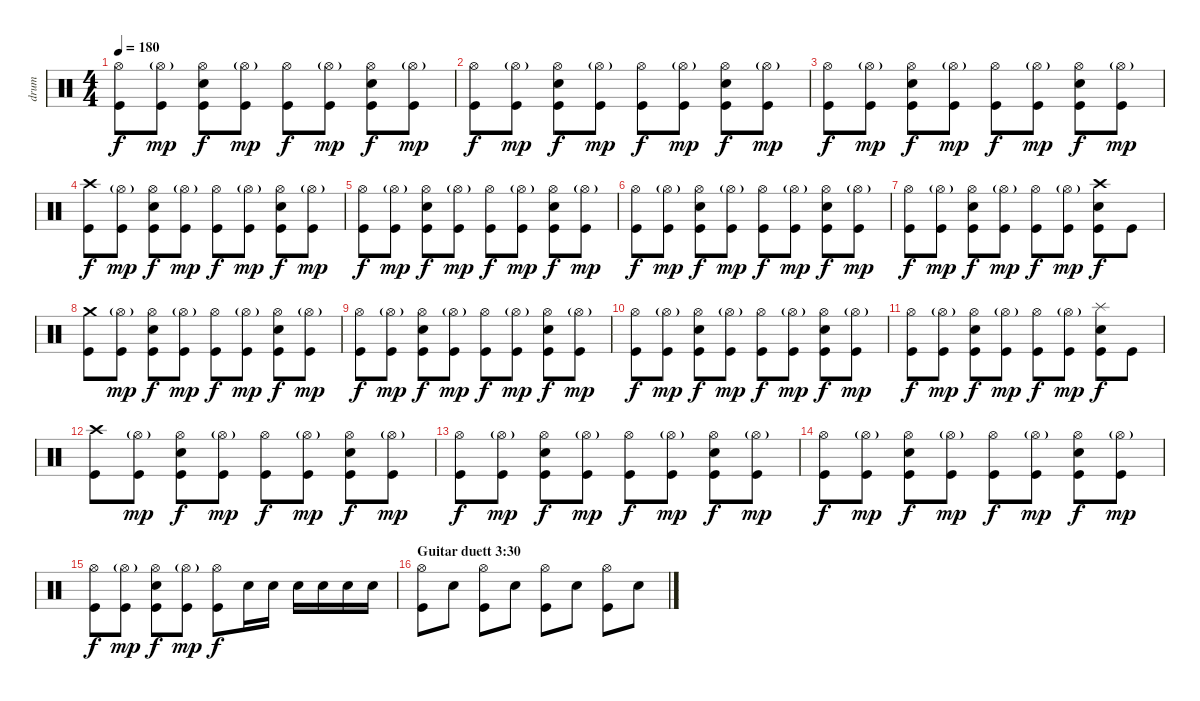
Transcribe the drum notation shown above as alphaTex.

\track ("drum" "drum") {instrument percussion}
\staff {score}
\articulation defaults
\ts (4 4)
\tempo 180
\clef neutral
\ks c
("Hi-Hat (open)" "Kick (hit)").8{dy f} ("Hi-Hat (open)"{g} "Kick (hit)").8{dy mp} ("Hi-Hat (open)" "Snare (hit) 2" "Kick (hit)").8{dy f} ("Hi-Hat (open)"{g} "Kick (hit)").8{dy mp} ("Hi-Hat (open)" "Kick (hit)").8{dy f} ("Hi-Hat (open)"{g} "Kick (hit)").8{dy mp} ("Hi-Hat (open)" "Snare (hit) 2" "Kick (hit)").8{dy f} ("Hi-Hat (open)"{g} "Kick (hit)").8{dy mp} |
("Hi-Hat (open)" "Kick (hit)").8{dy f} ("Hi-Hat (open)"{g} "Kick (hit)").8{dy mp} ("Hi-Hat (open)" "Snare (hit) 2" "Kick (hit)").8{dy f} ("Hi-Hat (open)"{g} "Kick (hit)").8{dy mp} ("Hi-Hat (open)" "Kick (hit)").8{dy f} ("Hi-Hat (open)"{g} "Kick (hit)").8{dy mp} ("Hi-Hat (open)" "Snare (hit) 2" "Kick (hit)").8{dy f} ("Hi-Hat (open)"{g} "Kick (hit)").8{dy mp} |
("Hi-Hat (open)" "Kick (hit)").8{dy f} ("Hi-Hat (open)"{g} "Kick (hit)").8{dy mp} ("Hi-Hat (open)" "Snare (hit) 2" "Kick (hit)").8{dy f} ("Hi-Hat (open)"{g} "Kick (hit)").8{dy mp} ("Hi-Hat (open)" "Kick (hit)").8{dy f} ("Hi-Hat (open)"{g} "Kick (hit)").8{dy mp} ("Hi-Hat (open)" "Snare (hit) 2" "Kick (hit)").8{dy f} ("Hi-Hat (open)"{g} "Kick (hit)").8{dy mp} |
("Crash high (hit)" "Kick (hit)").8{dy f} ("Hi-Hat (open)"{g} "Kick (hit)").8{dy mp} ("Hi-Hat (open)" "Snare (hit) 2" "Kick (hit)").8{dy f} ("Hi-Hat (open)"{g} "Kick (hit)").8{dy mp} ("Hi-Hat (open)" "Kick (hit)").8{dy f} ("Hi-Hat (open)"{g} "Kick (hit)").8{dy mp} ("Hi-Hat (open)" "Snare (hit) 2" "Kick (hit)").8{dy f} ("Hi-Hat (open)"{g} "Kick (hit)").8{dy mp} |
("Hi-Hat (open)" "Kick (hit)").8{dy f} ("Hi-Hat (open)"{g} "Kick (hit)").8{dy mp} ("Hi-Hat (open)" "Snare (hit) 2" "Kick (hit)").8{dy f} ("Hi-Hat (open)"{g} "Kick (hit)").8{dy mp} ("Hi-Hat (open)" "Kick (hit)").8{dy f} ("Hi-Hat (open)"{g} "Kick (hit)").8{dy mp} ("Hi-Hat (open)" "Snare (hit) 2" "Kick (hit)").8{dy f} ("Hi-Hat (open)"{g} "Kick (hit)").8{dy mp} |
("Hi-Hat (open)" "Kick (hit)").8{dy f} ("Hi-Hat (open)"{g} "Kick (hit)").8{dy mp} ("Hi-Hat (open)" "Snare (hit) 2" "Kick (hit)").8{dy f} ("Hi-Hat (open)"{g} "Kick (hit)").8{dy mp} ("Hi-Hat (open)" "Kick (hit)").8{dy f} ("Hi-Hat (open)"{g} "Kick (hit)").8{dy mp} ("Hi-Hat (open)" "Snare (hit) 2" "Kick (hit)").8{dy f} ("Hi-Hat (open)"{g} "Kick (hit)").8{dy mp} |
("Hi-Hat (open)" "Kick (hit)").8{dy f} ("Hi-Hat (open)"{g} "Kick (hit)").8{dy mp} ("Hi-Hat (open)" "Snare (hit) 2" "Kick (hit)").8{dy f} ("Hi-Hat (open)"{g} "Kick (hit)").8{dy mp} ("Hi-Hat (open)" "Kick (hit)").8{dy f} ("Hi-Hat (open)"{g} "Kick (hit)").8{dy mp} ("Crash high (hit)" "Snare (hit) 2" "Kick (hit)").8{dy f} "Kick (hit)".8 |
("Crash medium (hit)" "Kick (hit)").8 ("Hi-Hat (open)"{g} "Kick (hit)").8{dy mp} ("Hi-Hat (open)" "Snare (hit) 2" "Kick (hit)").8{dy f} ("Hi-Hat (open)"{g} "Kick (hit)").8{dy mp} ("Hi-Hat (open)" "Kick (hit)").8{dy f} ("Hi-Hat (open)"{g} "Kick (hit)").8{dy mp} ("Hi-Hat (open)" "Snare (hit) 2" "Kick (hit)").8{dy f} ("Hi-Hat (open)"{g} "Kick (hit)").8{dy mp} |
("Hi-Hat (open)" "Kick (hit)").8{dy f} ("Hi-Hat (open)"{g} "Kick (hit)").8{dy mp} ("Hi-Hat (open)" "Snare (hit) 2" "Kick (hit)").8{dy f} ("Hi-Hat (open)"{g} "Kick (hit)").8{dy mp} ("Hi-Hat (open)" "Kick (hit)").8{dy f} ("Hi-Hat (open)"{g} "Kick (hit)").8{dy mp} ("Hi-Hat (open)" "Snare (hit) 2" "Kick (hit)").8{dy f} ("Hi-Hat (open)"{g} "Kick (hit)").8{dy mp} |
("Hi-Hat (open)" "Kick (hit)").8{dy f} ("Hi-Hat (open)"{g} "Kick (hit)").8{dy mp} ("Hi-Hat (open)" "Snare (hit) 2" "Kick (hit)").8{dy f} ("Hi-Hat (open)"{g} "Kick (hit)").8{dy mp} ("Hi-Hat (open)" "Kick (hit)").8{dy f} ("Hi-Hat (open)"{g} "Kick (hit)").8{dy mp} ("Hi-Hat (open)" "Snare (hit) 2" "Kick (hit)").8{dy f} ("Hi-Hat (open)"{g} "Kick (hit)").8{dy mp} |
("Hi-Hat (open)" "Kick (hit)").8{dy f} ("Hi-Hat (open)"{g} "Kick (hit)").8{dy mp} ("Hi-Hat (open)" "Snare (hit) 2" "Kick (hit)").8{dy f} ("Hi-Hat (open)"{g} "Kick (hit)").8{dy mp} ("Hi-Hat (open)" "Kick (hit)").8{dy f} ("Hi-Hat (open)"{g} "Kick (hit)").8{dy mp} ("Splash (hit)" "Snare (hit) 2" "Kick (hit)").8{dy f} "Kick (hit)".8 |
("Crash high (hit)" "Kick (hit)").8 ("Hi-Hat (open)"{g} "Kick (hit)").8{dy mp} ("Hi-Hat (open)" "Snare (hit) 2" "Kick (hit)").8{dy f} ("Hi-Hat (open)"{g} "Kick (hit)").8{dy mp} ("Hi-Hat (open)" "Kick (hit)").8{dy f} ("Hi-Hat (open)"{g} "Kick (hit)").8{dy mp} ("Hi-Hat (open)" "Snare (hit) 2" "Kick (hit)").8{dy f} ("Hi-Hat (open)"{g} "Kick (hit)").8{dy mp} |
("Hi-Hat (open)" "Kick (hit)").8{dy f} ("Hi-Hat (open)"{g} "Kick (hit)").8{dy mp} ("Hi-Hat (open)" "Snare (hit) 2" "Kick (hit)").8{dy f} ("Hi-Hat (open)"{g} "Kick (hit)").8{dy mp} ("Hi-Hat (open)" "Kick (hit)").8{dy f} ("Hi-Hat (open)"{g} "Kick (hit)").8{dy mp} ("Hi-Hat (open)" "Snare (hit) 2" "Kick (hit)").8{dy f} ("Hi-Hat (open)"{g} "Kick (hit)").8{dy mp} |
("Hi-Hat (open)" "Kick (hit)").8{dy f} ("Hi-Hat (open)"{g} "Kick (hit)").8{dy mp} ("Hi-Hat (open)" "Snare (hit) 2" "Kick (hit)").8{dy f} ("Hi-Hat (open)"{g} "Kick (hit)").8{dy mp} ("Hi-Hat (open)" "Kick (hit)").8{dy f} ("Hi-Hat (open)"{g} "Kick (hit)").8{dy mp} ("Hi-Hat (open)" "Snare (hit) 2" "Kick (hit)").8{dy f} ("Hi-Hat (open)"{g} "Kick (hit)").8{dy mp} |
("Hi-Hat (open)" "Kick (hit)").8{dy f} ("Hi-Hat (open)"{g} "Kick (hit)").8{dy mp} ("Hi-Hat (open)" "Snare (hit) 2" "Kick (hit)").8{dy f} ("Hi-Hat (open)"{g} "Kick (hit)").8{dy mp} ("Hi-Hat (open)" "Kick (hit)").8{dy f} "Snare (hit) 2".16 "Snare (hit) 2".16 "Snare (hit) 2".16 "Snare (hit) 2".16 "Snare (hit) 2".16 "Snare (hit) 2".16 |
\section ("" "Guitar duett 3:30")
("Hi-Hat (open)" "Kick (hit)").8 "Snare (hit) 2".8 ("Hi-Hat (open)" "Kick (hit)").8 "Snare (hit) 2".8 ("Hi-Hat (open)" "Kick (hit)").8 "Snare (hit) 2".8 ("Hi-Hat (open)" "Kick (hit)").8 "Snare (hit) 2".8
